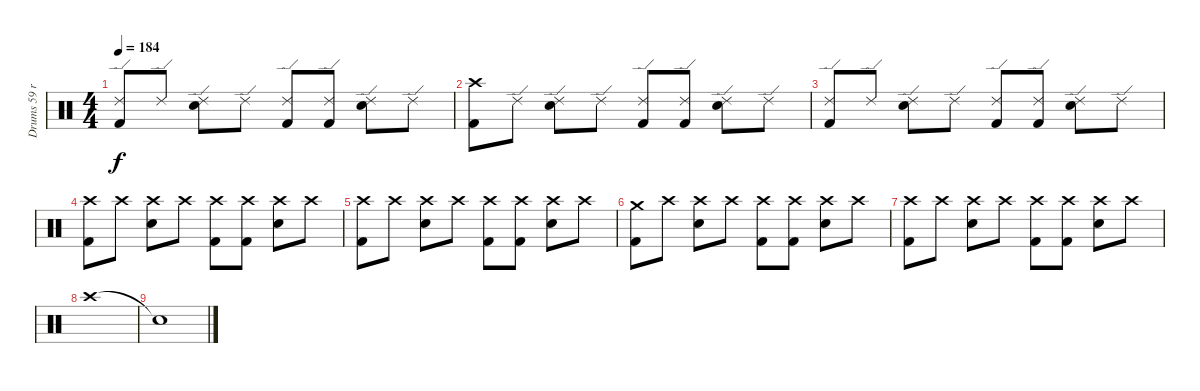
\track ("Drums 59 ride" "Drums 59 r") {mute instrument percussion}
\staff {score}
\articulation defaults
\ts (4 4)
\tempo 184
\clef neutral
\ks c
("Ride (edge) 2" "Kick (hit) 2").8{dy f} "Ride (edge) 2".8 ("Ride (edge) 2" "Snare (hit) 2").8 "Ride (edge) 2".8 ("Ride (edge) 2" "Kick (hit) 2").8 ("Ride (edge) 2" "Kick (hit) 2").8 ("Ride (edge) 2" "Snare (hit) 2").8 "Ride (edge) 2".8 |
("Crash high (hit)" "Kick (hit) 2").8 "Ride (edge) 2".8 ("Ride (edge) 2" "Snare (hit) 2").8 "Ride (edge) 2".8 ("Ride (edge) 2" "Kick (hit) 2").8 ("Ride (edge) 2" "Kick (hit) 2").8 ("Ride (edge) 2" "Snare (hit) 2").8 "Ride (edge) 2".8 |
("Ride (edge) 2" "Kick (hit) 2").8 "Ride (edge) 2".8 ("Ride (edge) 2" "Snare (hit) 2").8 "Ride (edge) 2".8 ("Ride (edge) 2" "Kick (hit) 2").8 ("Ride (edge) 2" "Kick (hit) 2").8 ("Ride (edge) 2" "Snare (hit) 2").8 "Ride (edge) 2".8 |
("Crash high (hit)" "Kick (hit) 2").8 "Crash high (hit)".8 ("Crash high (hit)" "Snare (hit) 2").8 "Crash high (hit)".8 ("Crash high (hit)" "Kick (hit) 2").8 ("Crash high (hit)" "Kick (hit) 2").8 ("Crash high (hit)" "Snare (hit) 2").8 "Crash high (hit)".8 |
("Crash high (hit)" "Kick (hit) 2").8 "Crash high (hit)".8 ("Crash high (hit)" "Snare (hit) 2").8 "Crash high (hit)".8 ("Crash high (hit)" "Kick (hit) 2").8 ("Crash high (hit)" "Kick (hit) 2").8 ("Crash high (hit)" "Snare (hit) 2").8 "Crash high (hit)".8 |
("Crash medium (hit)" "Kick (hit) 2").8 "Crash high (hit)".8 ("Crash high (hit)" "Snare (hit) 2").8 "Crash high (hit)".8 ("Crash high (hit)" "Kick (hit) 2").8 ("Crash high (hit)" "Kick (hit) 2").8 ("Crash high (hit)" "Snare (hit) 2").8 "Crash high (hit)".8 |
("Crash high (hit)" "Kick (hit) 2").8 "Crash high (hit)".8 ("Crash high (hit)" "Snare (hit) 2").8 "Crash high (hit)".8 ("Crash high (hit)" "Kick (hit) 2").8 ("Crash high (hit)" "Kick (hit) 2").8 ("Crash high (hit)" "Snare (hit) 2").8 "Crash high (hit)".8 |
"Crash high (hit)".1 |
"Snare (hit)"{t}.1
